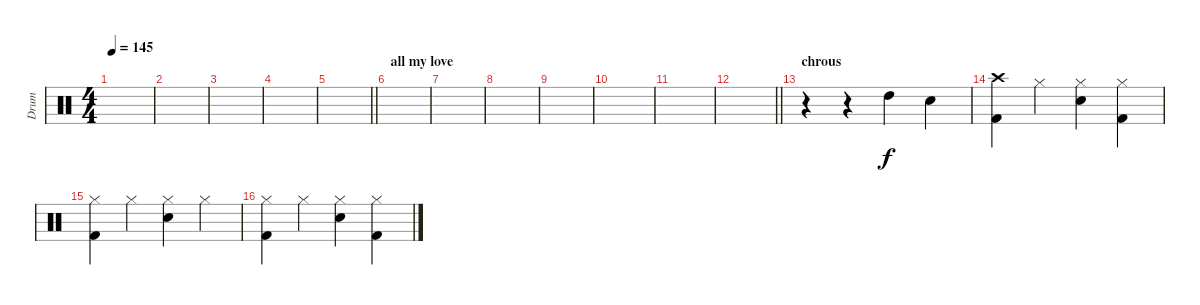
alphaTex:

\track ("Drum" "Drum") {instrument percussion}
\staff {score}
\articulation defaults
\ts (4 4)
\tempo 145
\clef neutral
\ks c
|
|
|
|
\barLineRight lightlight
|
\section ("" "all my love")
|
|
|
|
|
|
\barLineRight lightlight
|
\section ("" "chrous")
r.4 r.4 "High Tom (hit)".4 "Snare (hit) 2".4 |
("Crash high (hit)" "Kick (hit) 2").4 "Hi-Hat (closed)".4 ("Hi-Hat (closed)" "Snare (hit) 2").4 ("Hi-Hat (closed)" "Kick (hit) 2").4 |
("Hi-Hat (closed)" "Kick (hit) 2").4 "Hi-Hat (closed)".4 ("Hi-Hat (closed)" "Snare (hit) 2").4 "Hi-Hat (closed)".4 |
("Hi-Hat (closed)" "Kick (hit) 2").4 "Hi-Hat (closed)".4 ("Hi-Hat (closed)" "Snare (hit) 2").4 ("Hi-Hat (closed)" "Kick (hit) 2").4
